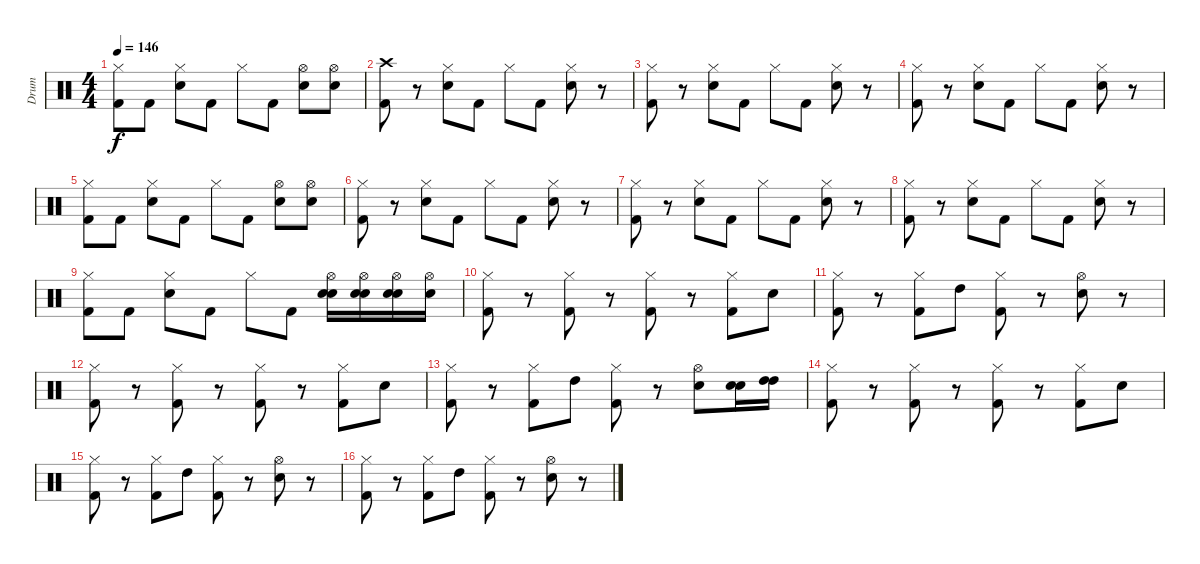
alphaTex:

\track ("Drum" "Drum") {instrument percussion}
\staff {score}
\articulation defaults
\ts (4 4)
\tempo 146
\clef neutral
\ks c
("Hi-Hat (closed)" "Kick (hit) 2").8{dy f} "Kick (hit) 2".8 ("Hi-Hat (closed)" "Electric Snare (hit)").8 "Kick (hit) 2".8 "Hi-Hat (closed)".8 "Kick (hit) 2".8 ("Hi-Hat (open)" "Electric Snare (hit)").8 ("Hi-Hat (open)" "Electric Snare (hit)").8 |
("Crash high (hit)" "Kick (hit) 2").8 r.8 ("Hi-Hat (closed)" "Electric Snare (hit)").8 "Kick (hit) 2".8 "Hi-Hat (closed)".8 "Kick (hit) 2".8 ("Hi-Hat (closed)" "Electric Snare (hit)").8 r.8 |
("Hi-Hat (closed)" "Kick (hit) 2").8 r.8 ("Hi-Hat (closed)" "Electric Snare (hit)").8 "Kick (hit) 2".8 "Hi-Hat (closed)".8 "Kick (hit) 2".8 ("Hi-Hat (closed)" "Electric Snare (hit)").8 r.8 |
("Hi-Hat (closed)" "Kick (hit) 2").8 r.8 ("Hi-Hat (closed)" "Electric Snare (hit)").8 "Kick (hit) 2".8 "Hi-Hat (closed)".8 "Kick (hit) 2".8 ("Hi-Hat (closed)" "Electric Snare (hit)").8 r.8 |
("Hi-Hat (closed)" "Kick (hit) 2").8 "Kick (hit) 2".8 ("Hi-Hat (closed)" "Electric Snare (hit)").8 "Kick (hit) 2".8 "Hi-Hat (closed)".8 "Kick (hit) 2".8 ("Hi-Hat (open)" "Electric Snare (hit)").8 ("Hi-Hat (open)" "Electric Snare (hit)").8 |
("Hi-Hat (closed)" "Kick (hit) 2").8 r.8 ("Hi-Hat (closed)" "Electric Snare (hit)").8 "Kick (hit) 2".8 "Hi-Hat (closed)".8 "Kick (hit) 2".8 ("Hi-Hat (closed)" "Electric Snare (hit)").8 r.8 |
("Hi-Hat (closed)" "Kick (hit) 2").8 r.8 ("Hi-Hat (closed)" "Electric Snare (hit)").8 "Kick (hit) 2".8 "Hi-Hat (closed)".8 "Kick (hit) 2".8 ("Hi-Hat (closed)" "Electric Snare (hit)").8 r.8 |
("Hi-Hat (closed)" "Kick (hit) 2").8 r.8 ("Hi-Hat (closed)" "Electric Snare (hit)").8 "Kick (hit) 2".8 "Hi-Hat (closed)".8 "Kick (hit) 2".8 ("Hi-Hat (closed)" "Electric Snare (hit)").8 r.8 |
("Hi-Hat (closed)" "Kick (hit) 2").8 "Kick (hit) 2".8 ("Hi-Hat (closed)" "Electric Snare (hit)").8 "Kick (hit) 2".8 "Hi-Hat (closed)".8 "Kick (hit) 2".8 ("Hi-Hat (open)" "Electric Snare (hit)" "Electric Snare (hit)").16 ("Hi-Hat (open)" "Electric Snare (hit)" "Electric Snare (hit)").16 ("Hi-Hat (open)" "Electric Snare (hit)" "Electric Snare (hit)").16 ("Hi-Hat (open)" "Electric Snare (hit)").16 |
("Hi-Hat (closed)" "Kick (hit) 2").8 r.8 ("Hi-Hat (closed)" "Kick (hit) 2").8 r.8 ("Hi-Hat (closed)" "Kick (hit) 2").8 r.8 ("Hi-Hat (closed)" "Kick (hit) 2").8 "Electric Snare (hit)".8 |
("Hi-Hat (closed)" "Kick (hit) 2").8 r.8 ("Hi-Hat (closed)" "Kick (hit) 2").8 "High Tom (hit)".8 ("Hi-Hat (closed)" "Kick (hit) 2").8 r.8 ("Hi-Hat (open)" "Electric Snare (hit)").8 r.8 |
("Hi-Hat (closed)" "Kick (hit) 2").8 r.8 ("Hi-Hat (closed)" "Kick (hit) 2").8 r.8 ("Hi-Hat (closed)" "Kick (hit) 2").8 r.8 ("Hi-Hat (closed)" "Kick (hit) 2").8 "Electric Snare (hit)".8 |
("Hi-Hat (closed)" "Kick (hit) 2").8 r.8 ("Hi-Hat (closed)" "Kick (hit) 2").8 "High Tom (hit)".8 ("Hi-Hat (closed)" "Kick (hit) 2").8 r.8 ("Hi-Hat (open)" "Electric Snare (hit)").8 ("Electric Snare (hit)" "Electric Snare (hit)").16 ("High Tom (hit)" "High Tom (hit)").16 |
("Hi-Hat (closed)" "Kick (hit) 2").8 r.8 ("Hi-Hat (closed)" "Kick (hit) 2").8 r.8 ("Hi-Hat (closed)" "Kick (hit) 2").8 r.8 ("Hi-Hat (closed)" "Kick (hit) 2").8 "Electric Snare (hit)".8 |
("Hi-Hat (closed)" "Kick (hit) 2").8 r.8 ("Hi-Hat (closed)" "Kick (hit) 2").8 "High Tom (hit)".8 ("Hi-Hat (closed)" "Kick (hit) 2").8 r.8 ("Hi-Hat (open)" "Electric Snare (hit)").8 r.8 |
("Hi-Hat (closed)" "Kick (hit) 2").8 r.8 ("Hi-Hat (closed)" "Kick (hit) 2").8 "High Tom (hit)".8 ("Hi-Hat (closed)" "Kick (hit) 2").8 r.8 ("Hi-Hat (open)" "Electric Snare (hit)").8 r.8
